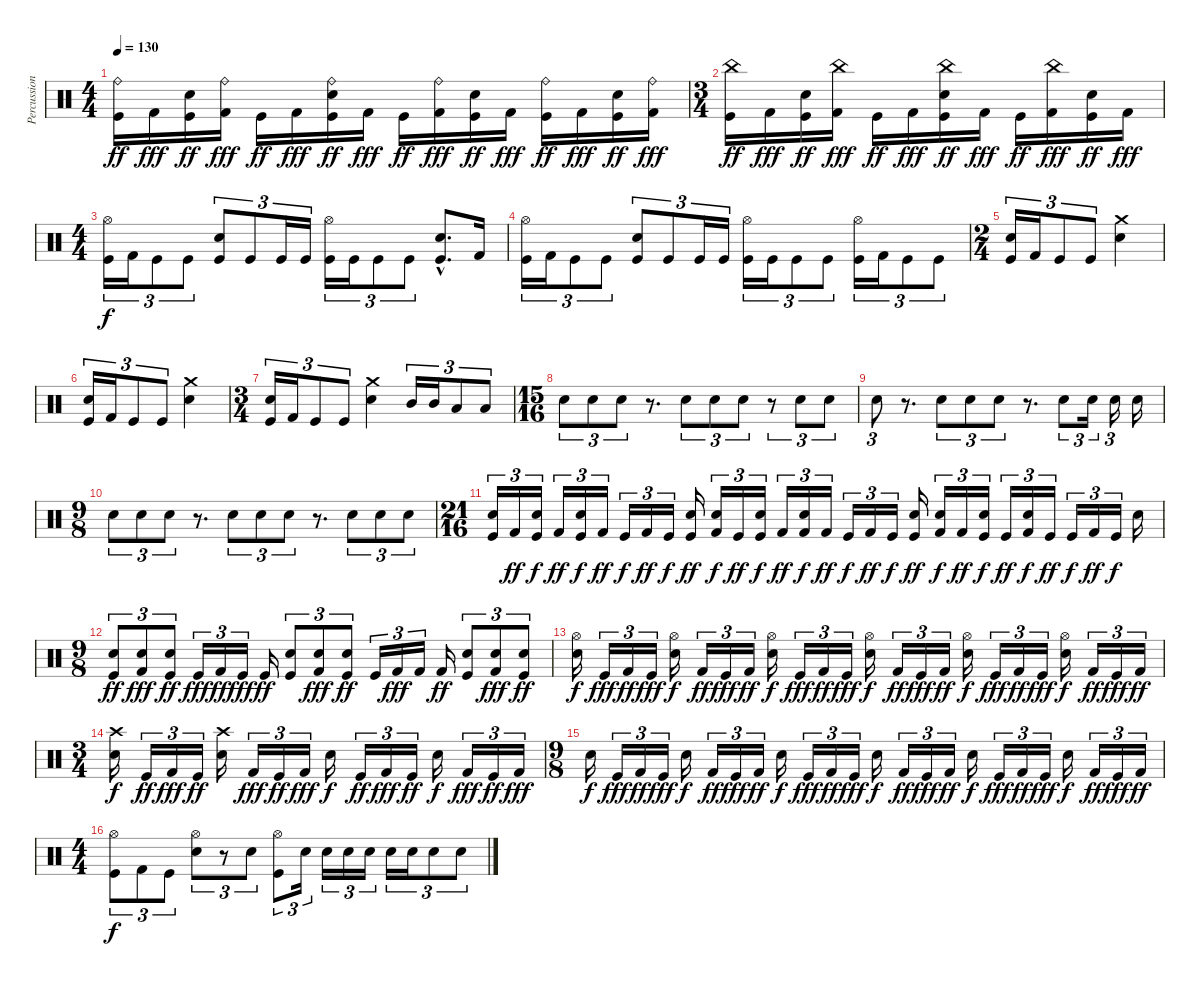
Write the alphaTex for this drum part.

\track ("Percussioni" "Percussion") {instrument percussion}
\staff {score}
\articulation defaults
\ts (4 4)
\tempo 130
\clef neutral
\ks c
("Ride (bell)" "Kick (hit)").16{dy ff} "Kick (hit) 2".16{dy fff} ("Snare (hit) 2" "Kick (hit)").16{dy ff} ("Ride (bell)" "Kick (hit) 2").16{dy fff} "Kick (hit)".16{dy ff} "Kick (hit) 2".16{dy fff} ("Ride (bell)" "Snare (hit) 2" "Kick (hit)").16{dy ff} "Kick (hit) 2".16{dy fff} "Kick (hit)".16{dy ff} ("Ride (bell)" "Kick (hit) 2").16{dy fff} ("Snare (hit) 2" "Kick (hit)").16{dy ff} "Kick (hit) 2".16{dy fff} ("Ride (bell)" "Kick (hit)").16{dy ff} "Kick (hit) 2".16{dy fff} ("Snare (hit) 2" "Kick (hit)").16{dy ff} ("Ride (bell)" "Kick (hit) 2").16{dy fff} |
\ts (3 4)
("China (hit)" "Kick (hit)").16{dy ff} "Kick (hit) 2".16{dy fff} ("Snare (hit) 2" "Kick (hit)").16{dy ff} ("China (hit)" "Kick (hit) 2").16{dy fff} "Kick (hit)".16{dy ff} "Kick (hit) 2".16{dy fff} ("China (hit)" "Snare (hit) 2" "Kick (hit)").16{dy ff} "Kick (hit) 2".16{dy fff} "Kick (hit)".16{dy ff} ("China (hit)" "Kick (hit) 2").16{dy fff} ("Snare (hit) 2" "Kick (hit)").16{dy ff} "Kick (hit) 2".16{dy fff} |
\ts (4 4)
("Hi-Hat (open)" "Kick (hit)").16{tu (3 2) dy f} "Kick (hit) 2".16{tu (3 2)} "Kick (hit)".8{tu (3 2)} "Kick (hit)".8{tu (3 2)} ("Snare (hit) 2" "Kick (hit)").8{tu (3 2)} "Kick (hit)".8{tu (3 2)} "Kick (hit)".16{tu (3 2)} "Kick (hit)".16{tu (3 2)} ("Hi-Hat (open)" "Kick (hit)").16{tu (3 2)} "Kick (hit)".16{tu (3 2)} "Kick (hit)".8{tu (3 2)} "Kick (hit)".8{tu (3 2)} ("Snare (hit) 2"{hac} "Kick (hit)"{hac}).8{d} "Kick (hit) 2".16 |
("Hi-Hat (open)" "Kick (hit)").16{tu (3 2)} "Kick (hit) 2".16{tu (3 2)} "Kick (hit)".8{tu (3 2)} "Kick (hit)".8{tu (3 2)} ("Snare (hit) 2" "Kick (hit)").8{tu (3 2)} "Kick (hit)".8{tu (3 2)} "Kick (hit)".16{tu (3 2)} "Kick (hit)".16{tu (3 2)} ("Hi-Hat (open)" "Kick (hit)").16{tu (3 2)} "Kick (hit)".16{tu (3 2)} "Kick (hit)".8{tu (3 2)} "Kick (hit)".8{tu (3 2)} ("Hi-Hat (open)" "Kick (hit)").16{tu (3 2)} "Kick (hit) 2".16{tu (3 2)} "Kick (hit)".8{tu (3 2)} "Kick (hit)".8{tu (3 2)} |
\ts (2 4)
("Snare (hit) 2" "Kick (hit)").16{tu (3 2)} "Kick (hit) 2".16{tu (3 2)} "Kick (hit)".8{tu (3 2)} "Kick (hit)".8{tu (3 2)} ("Crash medium (hit)" "Snare (hit) 2").4 |
("Snare (hit) 2" "Kick (hit)").16{tu (3 2)} "Kick (hit) 2".16{tu (3 2)} "Kick (hit)".8{tu (3 2)} "Kick (hit)".8{tu (3 2)} ("Crash medium (hit)" "Snare (hit) 2").4 |
\ts (3 4)
("Snare (hit) 2" "Kick (hit)").16{tu (3 2)} "Kick (hit) 2".16{tu (3 2)} "Kick (hit)".8{tu (3 2)} "Kick (hit)".8{tu (3 2)} ("Crash medium (hit)" "Snare (hit) 2").4 "Mid Tom (hit)".16{tu (3 2)} "Mid Tom (hit)".16{tu (3 2)} "Low Tom (hit)".8{tu (3 2)} "Low Tom (hit)".8{tu (3 2)} |
\ts (15 16)
"Snare (hit) 2".8{tu (3 2)} "Snare (hit) 2".8{tu (3 2)} "Snare (hit) 2".8{tu (3 2)} r.8{d} "Snare (hit) 2".8{tu (3 2)} "Snare (hit) 2".8{tu (3 2)} "Snare (hit) 2".8{tu (3 2)} r.8{tu (3 2)} "Snare (hit) 2".8{tu (3 2)} "Snare (hit) 2".8{tu (3 2)} |
"Snare (hit) 2".8{tu (3 2)} r.8{d} "Snare (hit) 2".8{tu (3 2)} "Snare (hit) 2".8{tu (3 2)} "Snare (hit) 2".8{tu (3 2)} r.8{d} "Snare (hit) 2".8{tu (3 2)} "Snare (hit) 2".16{tu (3 2)} "Snare (hit) 2".16{tu (3 2)} "Snare (hit) 2".16 |
\ts (9 8)
"Snare (hit) 2".8{tu (3 2)} "Snare (hit) 2".8{tu (3 2)} "Snare (hit) 2".8{tu (3 2)} r.8{d} "Snare (hit) 2".8{tu (3 2)} "Snare (hit) 2".8{tu (3 2)} "Snare (hit) 2".8{tu (3 2)} r.8{d} "Snare (hit) 2".8{tu (3 2)} "Snare (hit) 2".8{tu (3 2)} "Snare (hit) 2".8{tu (3 2)} |
\ts (21 16)
("Snare (hit) 2" "Kick (hit)").16{tu (3 2)} "Kick (hit) 2".16{tu (3 2) dy ff} ("Snare (hit) 2" "Kick (hit)").16{tu (3 2) dy f} "Kick (hit) 2".16{tu (3 2) dy ff} ("Snare (hit) 2" "Kick (hit)").16{tu (3 2) dy f} "Kick (hit) 2".16{tu (3 2) dy ff} "Kick (hit)".16{tu (3 2) dy f} "Kick (hit) 2".16{tu (3 2) dy ff} "Kick (hit)".16{tu (3 2) dy f} ("Snare (hit) 2" "Kick (hit)").16{dy ff} ("Snare (hit) 2" "Kick (hit) 2").16{tu (3 2) dy f} "Kick (hit)".16{tu (3 2) dy ff} ("Snare (hit) 2" "Kick (hit)").16{tu (3 2) dy f} "Kick (hit) 2".16{tu (3 2) dy ff} ("Snare (hit) 2" "Kick (hit) 2").16{tu (3 2) dy f} "Kick (hit) 2".16{tu (3 2) dy ff} "Kick (hit)".16{tu (3 2) dy f} "Kick (hit) 2".16{tu (3 2) dy ff} "Kick (hit)".16{tu (3 2) dy f} ("Snare (hit) 2" "Kick (hit)").16{dy ff} ("Snare (hit) 2" "Kick (hit) 2").16{tu (3 2) dy f} "Kick (hit) 2".16{tu (3 2) dy ff} ("Snare (hit) 2" "Kick (hit)").16{tu (3 2) dy f} "Kick (hit)".16{tu (3 2) dy ff} ("Snare (hit) 2" "Kick (hit) 2").16{tu (3 2) dy f} "Kick (hit)".16{tu (3 2) dy ff} "Kick (hit)".16{tu (3 2) dy f} "Kick (hit) 2".16{tu (3 2) dy ff} "Kick (hit)".16{tu (3 2) dy f} "Snare (hit) 2".16 |
\ts (9 8)
("Snare (hit) 2" "Kick (hit)").8{tu (3 2) dy ff} ("Snare (hit) 2" "Kick (hit) 2").8{tu (3 2) dy fff} ("Snare (hit) 2" "Kick (hit)").8{tu (3 2) dy ff} "Kick (hit)".16{tu (3 2) dy fff} "Kick (hit) 2".16{tu (3 2) dy ff} "Kick (hit)".16{tu (3 2) dy fff} "Kick (hit)".16{dy ff} ("Snare (hit) 2" "Kick (hit)").8{tu (3 2)} ("Snare (hit) 2" "Kick (hit) 2").8{tu (3 2) dy fff} ("Snare (hit) 2" "Kick (hit)").8{tu (3 2) dy ff} "Kick (hit)".16{tu (3 2)} "Kick (hit) 2".16{tu (3 2) dy fff} "Kick (hit) 2".16{tu (3 2)} "Kick (hit) 2".16{dy ff} ("Snare (hit) 2" "Kick (hit)").8{tu (3 2)} ("Snare (hit) 2" "Kick (hit) 2").8{tu (3 2) dy fff} ("Snare (hit) 2" "Kick (hit)").8{tu (3 2) dy ff} |
("Hi-Hat (open)" "Snare (hit) 2").16{dy f} "Kick (hit)".16{tu (3 2) dy fff} "Kick (hit) 2".16{tu (3 2) dy ff} "Kick (hit)".16{tu (3 2) dy fff} ("Hi-Hat (open)" "Snare (hit) 2").16{dy f} "Kick (hit) 2".16{tu (3 2) dy ff} "Kick (hit)".16{tu (3 2) dy fff} "Kick (hit) 2".16{tu (3 2) dy ff} ("Hi-Hat (open)" "Snare (hit) 2").16{dy f} "Kick (hit)".16{tu (3 2) dy fff} "Kick (hit) 2".16{tu (3 2) dy ff} "Kick (hit)".16{tu (3 2) dy fff} ("Hi-Hat (open)" "Snare (hit) 2").16{dy f} "Kick (hit) 2".16{tu (3 2) dy ff} "Kick (hit)".16{tu (3 2) dy fff} "Kick (hit) 2".16{tu (3 2) dy ff} ("Hi-Hat (open)" "Snare (hit) 2").16{dy f} "Kick (hit)".16{tu (3 2) dy fff} "Kick (hit) 2".16{tu (3 2) dy ff} "Kick (hit)".16{tu (3 2) dy fff} ("Hi-Hat (open)" "Snare (hit) 2").16{dy f} "Kick (hit) 2".16{tu (3 2) dy ff} "Kick (hit)".16{tu (3 2) dy fff} "Kick (hit) 2".16{tu (3 2) dy ff} |
\ts (3 4)
("Crash high (hit)" "Snare (hit) 2").16{dy f} "Kick (hit)".16{tu (3 2) dy ff} "Kick (hit) 2".16{tu (3 2) dy fff} "Kick (hit)".16{tu (3 2) dy ff} ("Crash high (hit)" "Snare (hit) 2").16 "Kick (hit) 2".16{tu (3 2) dy fff} "Kick (hit)".16{tu (3 2) dy ff} "Kick (hit) 2".16{tu (3 2) dy fff} "Snare (hit) 2".16{dy f} "Kick (hit)".16{tu (3 2) dy ff} "Kick (hit) 2".16{tu (3 2) dy fff} "Kick (hit)".16{tu (3 2) dy ff} "Snare (hit) 2".16{dy f} "Kick (hit) 2".16{tu (3 2) dy fff} "Kick (hit)".16{tu (3 2) dy ff} "Kick (hit) 2".16{tu (3 2) dy fff} |
\ts (9 8)
"Snare (hit) 2".16{dy f} "Kick (hit)".16{tu (3 2) dy fff} "Kick (hit) 2".16{tu (3 2) dy ff} "Kick (hit)".16{tu (3 2) dy fff} "Snare (hit) 2".16{dy f} "Kick (hit) 2".16{tu (3 2) dy ff} "Kick (hit)".16{tu (3 2) dy fff} "Kick (hit) 2".16{tu (3 2) dy ff} "Snare (hit) 2".16{dy f} "Kick (hit)".16{tu (3 2) dy fff} "Kick (hit) 2".16{tu (3 2) dy ff} "Kick (hit)".16{tu (3 2) dy fff} "Snare (hit) 2".16{dy f} "Kick (hit) 2".16{tu (3 2) dy ff} "Kick (hit)".16{tu (3 2) dy fff} "Kick (hit) 2".16{tu (3 2) dy ff} "Snare (hit) 2".16{dy f} "Kick (hit)".16{tu (3 2) dy fff} "Kick (hit) 2".16{tu (3 2) dy ff} "Kick (hit)".16{tu (3 2) dy fff} "Snare (hit) 2".16{dy f} "Kick (hit) 2".16{tu (3 2) dy ff} "Kick (hit)".16{tu (3 2) dy fff} "Kick (hit) 2".16{tu (3 2) dy ff} |
\ts (4 4)
("Hi-Hat (open)" "Kick (hit)").8{tu (3 2) dy f} "Kick (hit) 2".8{tu (3 2)} "Kick (hit)".8{tu (3 2)} ("Hi-Hat (open)" "Snare (hit) 2").8{tu (3 2)} r.8{tu (3 2)} "Snare (hit) 2".8{tu (3 2)} ("Hi-Hat (open)" "Kick (hit)").8{tu (3 2)} "Snare (hit) 2".16{tu (3 2)} "Snare (hit) 2".16{tu (3 2)} "Snare (hit) 2".16{tu (3 2)} "Snare (hit) 2".16{tu (3 2)} "Snare (hit) 2".16{tu (3 2)} "Snare (hit) 2".16{tu (3 2)} "Snare (hit) 2".8{tu (3 2)} "Snare (hit) 2".8{tu (3 2)}
